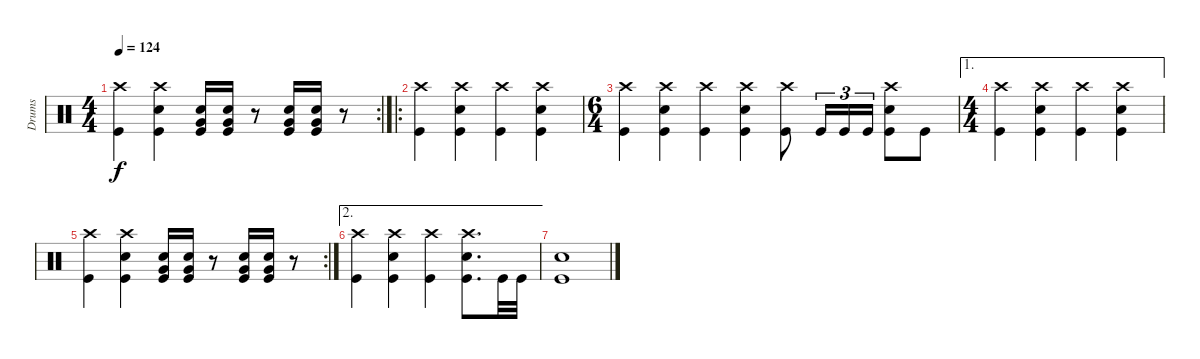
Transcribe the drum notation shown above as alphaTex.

\track ("Drums" "Drums") {instrument percussion}
\staff {score}
\articulation defaults
\rc 2
\ts (4 4)
\tempo 124
\clef neutral
\ks c
("Crash high (hit)" "Kick (hit)").4{dy f} ("Crash high (hit)" "Snare (hit) 2" "Kick (hit)").4 ("Snare (hit) 2" "Very Low Tom (hit)" "Kick (hit)").16 ("Snare (hit) 2" "Very Low Tom (hit)" "Kick (hit)").16 r.8 ("Snare (hit) 2" "Very Low Tom (hit)" "Kick (hit)").16 ("Snare (hit) 2" "Very Low Tom (hit)" "Kick (hit)").16 r.8 |
\ro
("Crash high (hit)" "Kick (hit)").4 ("Crash high (hit)" "Snare (hit) 2" "Kick (hit)").4 ("Crash high (hit)" "Kick (hit)").4 ("Crash high (hit)" "Snare (hit) 2" "Kick (hit)").4 |
\ts (6 4)
("Crash high (hit)" "Kick (hit)").4 ("Crash high (hit)" "Snare (hit) 2" "Kick (hit)").4 ("Crash high (hit)" "Kick (hit)").4 ("Crash high (hit)" "Snare (hit) 2" "Kick (hit)").4 ("Crash high (hit)" "Kick (hit)").8 "Kick (hit)".16{tu (3 2)} "Kick (hit)".16{tu (3 2)} "Kick (hit)".16{tu (3 2)} ("Crash high (hit)" "Snare (hit) 2" "Kick (hit)").8 "Kick (hit)".8 |
\ae 1
\ts (4 4)
("Crash high (hit)" "Kick (hit)").4 ("Crash high (hit)" "Snare (hit) 2" "Kick (hit)").4 ("Crash high (hit)" "Kick (hit)").4 ("Crash high (hit)" "Snare (hit) 2" "Kick (hit)").4 |
\rc 2
("Crash high (hit)" "Kick (hit)").4 ("Crash high (hit)" "Snare (hit) 2" "Kick (hit)").4 ("Snare (hit) 2" "Very Low Tom (hit)" "Kick (hit)").16 ("Snare (hit) 2" "Very Low Tom (hit)" "Kick (hit)").16 r.8 ("Snare (hit) 2" "Very Low Tom (hit)" "Kick (hit)").16 ("Snare (hit) 2" "Very Low Tom (hit)" "Kick (hit)").16 r.8 |
\ae 2
("Crash high (hit)" "Kick (hit)").4 ("Crash high (hit)" "Snare (hit) 2" "Kick (hit)").4 ("Crash high (hit)" "Kick (hit)").4 ("Crash high (hit)" "Snare (hit) 2" "Kick (hit)").8{d} "Kick (hit)".32 "Kick (hit)".32 |
("Snare (hit) 2" "Kick (hit)").1
